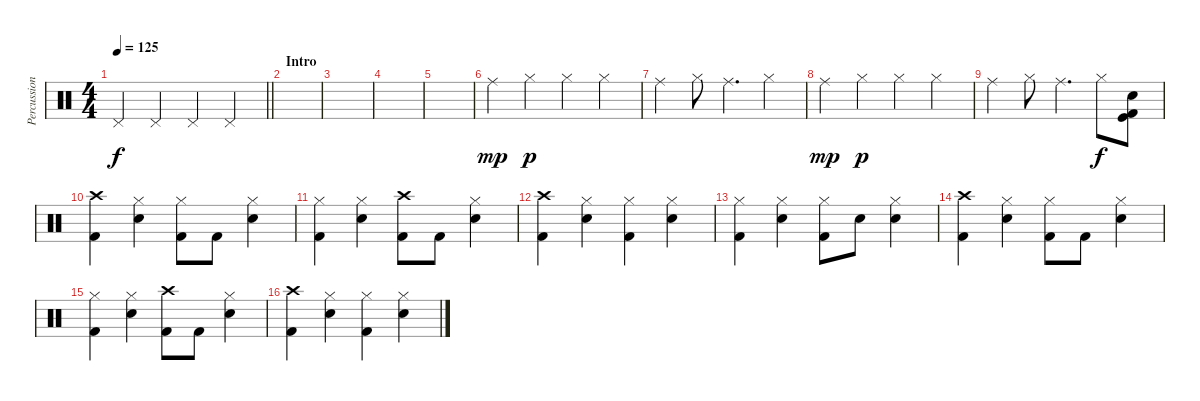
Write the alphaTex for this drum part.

\track ("Percussion" "Percussion") {instrument percussion}
\staff {score}
\articulation defaults
\ts (4 4)
\tempo 125
\clef neutral
\barLineRight lightlight
\ks c "Pedal Hi-Hat (hit)".4{dy f} "Pedal Hi-Hat (hit)".4 "Pedal Hi-Hat (hit)".4 "Pedal Hi-Hat (hit)".4
|
\section ("" "Intro")
|
|
|
|
"Ride (middle)".4{dy mp} "Hi-Hat (closed)".4{dy p} "Hi-Hat (closed)".4 "Hi-Hat (closed)".4 |
"Ride (middle)".4 "Hi-Hat (closed)".8 "Ride (middle)".4{d} "Hi-Hat (closed)".4 |
"Ride (middle)".4{dy mp} "Hi-Hat (closed)".4{dy p} "Hi-Hat (closed)".4 "Hi-Hat (closed)".4 |
"Ride (middle)".4 "Hi-Hat (closed)".8 "Ride (middle)".4{d} "Hi-Hat (closed)".8{dy f} ("Kick (hit)" "Kick (hit) 2" "Snare (hit) 2").8 |
("Kick (hit) 2" "Crash high (hit)").4 ("Electric Snare (hit)" "Hi-Hat (closed)").4 ("Kick (hit) 2" "Hi-Hat (closed)").8 "Kick (hit) 2".8 ("Electric Snare (hit)" "Hi-Hat (closed)").4 |
("Kick (hit) 2" "Hi-Hat (closed)").4 ("Electric Snare (hit)" "Hi-Hat (closed)").4 ("Kick (hit) 2" "Crash high (hit)").8 "Kick (hit) 2".8 ("Electric Snare (hit)" "Hi-Hat (closed)").4 |
("Kick (hit) 2" "Crash high (hit)").4 ("Electric Snare (hit)" "Hi-Hat (closed)").4 ("Kick (hit) 2" "Hi-Hat (closed)").4 ("Electric Snare (hit)" "Hi-Hat (closed)").4 |
("Kick (hit) 2" "Hi-Hat (closed)").4 ("Electric Snare (hit)" "Hi-Hat (closed)").4 ("Kick (hit) 2" "Hi-Hat (closed)").8 "Electric Snare (hit)".8 ("Electric Snare (hit)" "Hi-Hat (closed)").4 |
("Kick (hit) 2" "Crash high (hit)").4 ("Electric Snare (hit)" "Hi-Hat (closed)").4 ("Kick (hit) 2" "Hi-Hat (closed)").8 "Kick (hit) 2".8 ("Electric Snare (hit)" "Hi-Hat (closed)").4 |
("Kick (hit) 2" "Hi-Hat (closed)").4 ("Electric Snare (hit)" "Hi-Hat (closed)").4 ("Kick (hit) 2" "Crash high (hit)").8 "Kick (hit) 2".8 ("Electric Snare (hit)" "Hi-Hat (closed)").4 |
("Kick (hit) 2" "Crash high (hit)").4 ("Electric Snare (hit)" "Hi-Hat (closed)").4 ("Kick (hit) 2" "Hi-Hat (closed)").4 ("Electric Snare (hit)" "Hi-Hat (closed)").4
